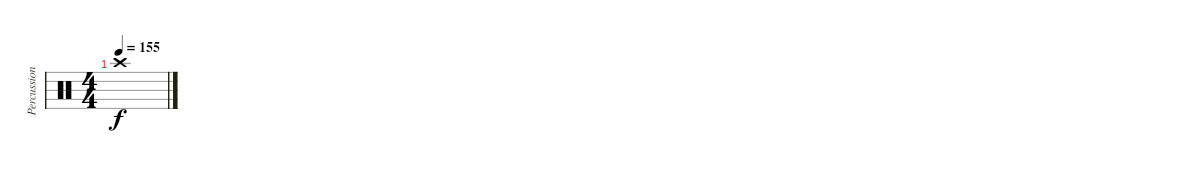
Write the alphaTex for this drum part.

\track ("Percussion 2" "Percussion") {instrument percussion}
\staff {score}
\articulation defaults
\ts (4 4)
\tempo 155
\clef neutral
\ks c "Crash high (hit)".1{dy f}
